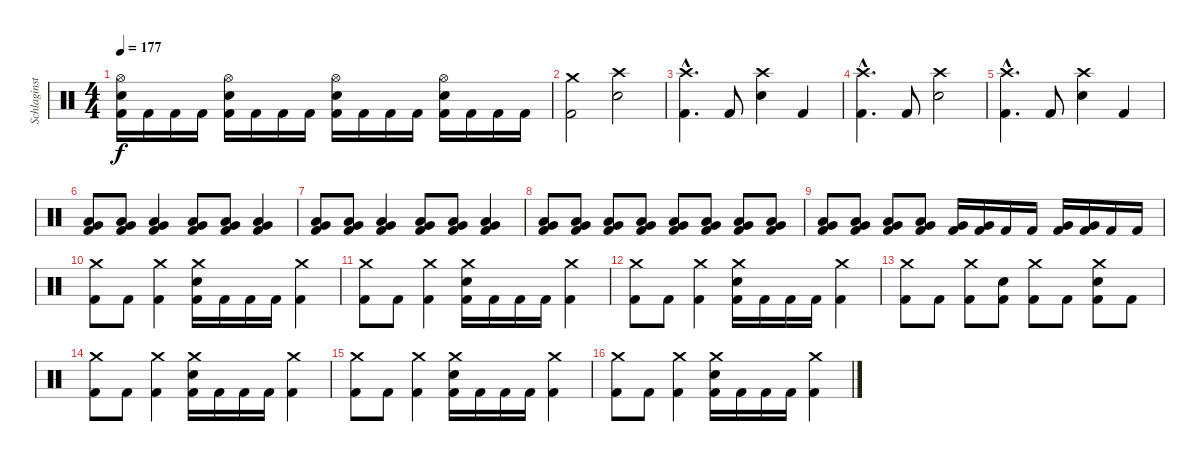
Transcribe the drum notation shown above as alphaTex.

\track ("Schlaginstrumente - Auswahl" "Schlaginst") {instrument percussion}
\staff {score}
\articulation defaults
\ts (4 4)
\tempo 177
\clef neutral
\ks c
("Hi-Hat (open)" "Snare (hit) 2" "Kick (hit) 2").16{dy f} "Kick (hit) 2".16 "Kick (hit) 2".16 "Kick (hit) 2".16 ("Hi-Hat (open)" "Snare (hit) 2" "Kick (hit) 2").16 "Kick (hit) 2".16 "Kick (hit) 2".16 "Kick (hit) 2".16 ("Hi-Hat (open)" "Snare (hit) 2" "Kick (hit) 2").16 "Kick (hit) 2".16 "Kick (hit) 2".16 "Kick (hit) 2".16 ("Hi-Hat (open)" "Snare (hit) 2" "Kick (hit) 2").16 "Kick (hit) 2".16 "Kick (hit) 2".16 "Kick (hit) 2".16 |
("Crash medium (hit)" "Kick (hit) 2").2 ("Crash high (hit)" "Snare (hit) 2").2 |
("Crash high (hit)"{hac} "Kick (hit) 2"{hac}).4{d} "Kick (hit) 2".8 ("Crash high (hit)" "Snare (hit) 2").4 "Kick (hit) 2".4 |
("Crash high (hit)"{hac} "Kick (hit) 2"{hac}).4{d} "Kick (hit) 2".8 ("Crash high (hit)" "Snare (hit) 2").2 |
("Crash high (hit)"{hac} "Kick (hit) 2"{hac}).4{d} "Kick (hit) 2".8 ("Crash high (hit)" "Snare (hit) 2").4 "Kick (hit) 2".4 |
("Very Low Tom (hit)" "Low Floor Tom (hit)" "Kick (hit) 2").8 ("Very Low Tom (hit)" "Low Floor Tom (hit)" "Kick (hit) 2").8 ("Very Low Tom (hit)" "Low Floor Tom (hit)" "Kick (hit) 2").4 ("Very Low Tom (hit)" "Low Floor Tom (hit)" "Kick (hit) 2").8 ("Very Low Tom (hit)" "Low Floor Tom (hit)" "Kick (hit) 2").8 ("Very Low Tom (hit)" "Low Floor Tom (hit)" "Kick (hit) 2").4 |
("Very Low Tom (hit)" "Low Floor Tom (hit)" "Kick (hit) 2").8 ("Very Low Tom (hit)" "Low Floor Tom (hit)" "Kick (hit) 2").8 ("Very Low Tom (hit)" "Low Floor Tom (hit)" "Kick (hit) 2").4 ("Very Low Tom (hit)" "Low Floor Tom (hit)" "Kick (hit) 2").8 ("Very Low Tom (hit)" "Low Floor Tom (hit)" "Kick (hit) 2").8 ("Very Low Tom (hit)" "Low Floor Tom (hit)" "Kick (hit) 2").4 |
("Very Low Tom (hit)" "Low Floor Tom (hit)" "Kick (hit) 2").8 ("Very Low Tom (hit)" "Low Floor Tom (hit)" "Kick (hit) 2").8 ("Very Low Tom (hit)" "Low Floor Tom (hit)" "Kick (hit) 2").8 ("Very Low Tom (hit)" "Low Floor Tom (hit)" "Kick (hit) 2").8 ("Very Low Tom (hit)" "Low Floor Tom (hit)" "Kick (hit) 2").8 ("Very Low Tom (hit)" "Low Floor Tom (hit)" "Kick (hit) 2").8 ("Very Low Tom (hit)" "Low Floor Tom (hit)" "Kick (hit) 2").8 ("Very Low Tom (hit)" "Low Floor Tom (hit)" "Kick (hit) 2").8 |
("Very Low Tom (hit)" "Low Floor Tom (hit)" "Kick (hit) 2").8 ("Very Low Tom (hit)" "Low Floor Tom (hit)" "Kick (hit) 2").8 ("Very Low Tom (hit)" "Low Floor Tom (hit)" "Kick (hit) 2").8 ("Very Low Tom (hit)" "Low Floor Tom (hit)" "Kick (hit) 2").8 ("Very Low Tom (hit)" "Kick (hit) 2").16 ("Very Low Tom (hit)" "Kick (hit) 2").16 "Kick (hit) 2".16 "Kick (hit) 2".16 ("Very Low Tom (hit)" "Kick (hit) 2").16 ("Very Low Tom (hit)" "Kick (hit) 2").16 "Kick (hit) 2".16 "Kick (hit) 2".16 |
("Crash medium (hit)" "Kick (hit) 2").8 "Kick (hit) 2".8 ("Crash medium (hit)" "Kick (hit) 2").4 ("Crash medium (hit)" "Snare (hit) 2" "Kick (hit) 2").16 "Kick (hit) 2".16 "Kick (hit) 2".16 "Kick (hit) 2".16 ("Crash medium (hit)" "Kick (hit) 2").4 |
("Crash medium (hit)" "Kick (hit) 2").8 "Kick (hit) 2".8 ("Crash medium (hit)" "Kick (hit) 2").4 ("Crash medium (hit)" "Snare (hit) 2" "Kick (hit) 2").16 "Kick (hit) 2".16 "Kick (hit) 2".16 "Kick (hit) 2".16 ("Crash medium (hit)" "Kick (hit) 2").4 |
("Crash medium (hit)" "Kick (hit) 2").8 "Kick (hit) 2".8 ("Crash medium (hit)" "Kick (hit) 2").4 ("Crash medium (hit)" "Snare (hit) 2" "Kick (hit) 2").16 "Kick (hit) 2".16 "Kick (hit) 2".16 "Kick (hit) 2".16 ("Crash medium (hit)" "Kick (hit) 2").4 |
("Crash medium (hit)" "Kick (hit) 2").8 "Kick (hit) 2".8 ("Crash medium (hit)" "Kick (hit) 2").8 ("Snare (hit) 2" "Kick (hit) 2").8 ("Crash medium (hit)" "Kick (hit) 2").8 "Kick (hit) 2".8 ("Crash medium (hit)" "Snare (hit) 2" "Kick (hit) 2").8 "Kick (hit) 2".8 |
("Crash medium (hit)" "Kick (hit) 2").8 "Kick (hit) 2".8 ("Crash medium (hit)" "Kick (hit) 2").4 ("Crash medium (hit)" "Snare (hit) 2" "Kick (hit) 2").16 "Kick (hit) 2".16 "Kick (hit) 2".16 "Kick (hit) 2".16 ("Crash medium (hit)" "Kick (hit) 2").4 |
("Crash medium (hit)" "Kick (hit) 2").8 "Kick (hit) 2".8 ("Crash medium (hit)" "Kick (hit) 2").4 ("Crash medium (hit)" "Snare (hit) 2" "Kick (hit) 2").16 "Kick (hit) 2".16 "Kick (hit) 2".16 "Kick (hit) 2".16 ("Crash medium (hit)" "Kick (hit) 2").4 |
("Crash medium (hit)" "Kick (hit) 2").8 "Kick (hit) 2".8 ("Crash medium (hit)" "Kick (hit) 2").4 ("Crash medium (hit)" "Snare (hit) 2" "Kick (hit) 2").16 "Kick (hit) 2".16 "Kick (hit) 2".16 "Kick (hit) 2".16 ("Crash medium (hit)" "Kick (hit) 2").4
